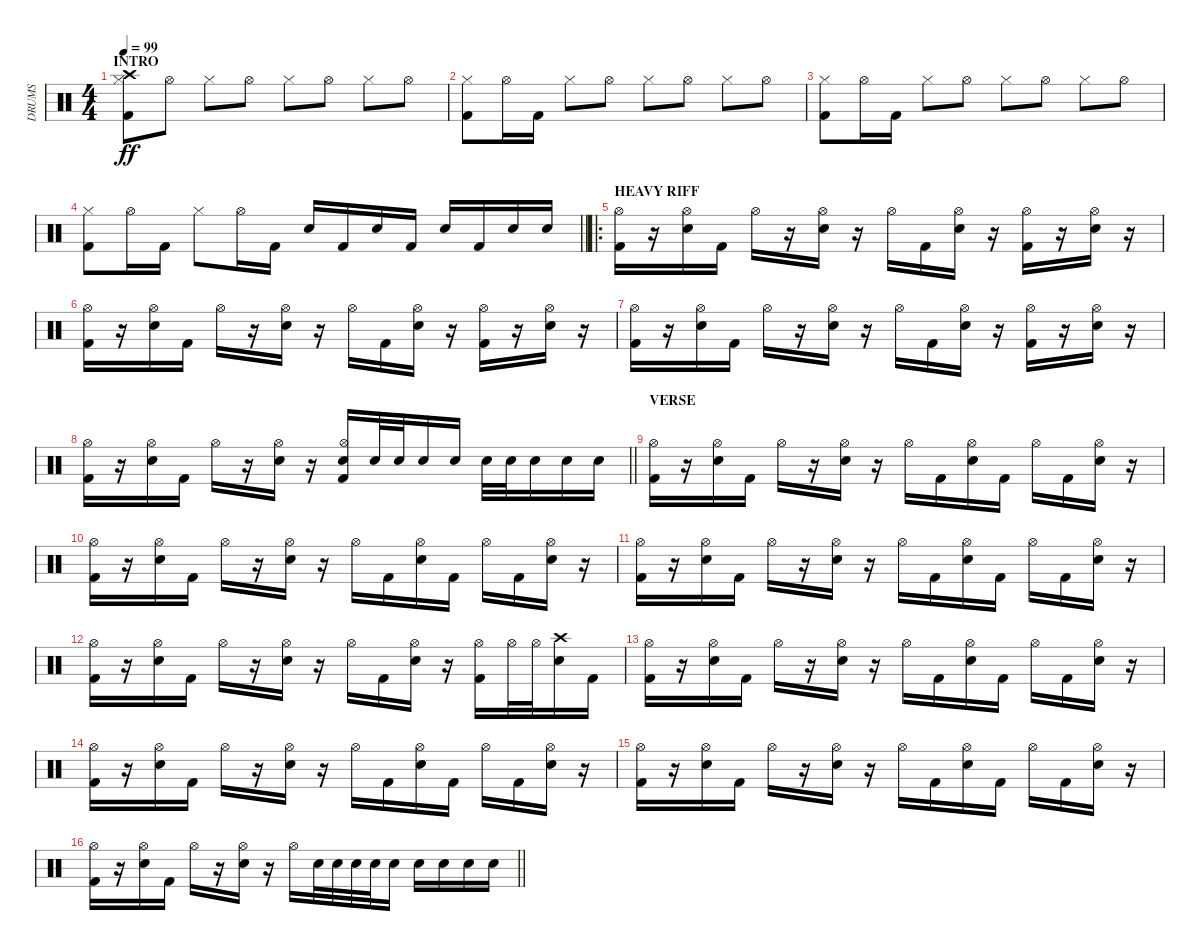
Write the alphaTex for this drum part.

\track ("DRUMS" "DRUMS") {instrument percussion}
\staff {score}
\articulation defaults
\ts (4 4)
\section ("" "INTRO")
\tempo 99
\clef neutral
\ks c
("Crash high (hit)" "Hi-Hat (closed)" "Kick (hit) 2").8{dy ff} "Hi-Hat (open)".8 "Hi-Hat (closed)".8 "Hi-Hat (open)".8 "Hi-Hat (closed)".8 "Hi-Hat (open)".8 "Hi-Hat (closed)".8 "Hi-Hat (open)".8 |
("Hi-Hat (closed)" "Kick (hit) 2").8 "Hi-Hat (open)".16 "Kick (hit) 2".16 "Hi-Hat (closed)".8 "Hi-Hat (open)".8 "Hi-Hat (closed)".8 "Hi-Hat (open)".8 "Hi-Hat (closed)".8 "Hi-Hat (open)".8 |
("Hi-Hat (closed)" "Kick (hit) 2").8 "Hi-Hat (open)".16 "Kick (hit) 2".16 "Hi-Hat (closed)".8 "Hi-Hat (open)".8 "Hi-Hat (closed)".8 "Hi-Hat (open)".8 "Hi-Hat (closed)".8 "Hi-Hat (open)".8 |
\barLineRight lightlight
("Hi-Hat (closed)" "Kick (hit) 2").8 "Hi-Hat (open)".16 "Kick (hit) 2".16 "Hi-Hat (closed)".8 "Hi-Hat (open)".16 "Kick (hit) 2".16 "Electric Snare (hit)".16 "Kick (hit) 2".16 "Electric Snare (hit)".16 "Kick (hit) 2".16 "Electric Snare (hit)".16 "Kick (hit) 2".16 "Electric Snare (hit)".16 "Electric Snare (hit)".16 |
\ro
\section ("" "HEAVY RIFF")
("Hi-Hat (open)" "Kick (hit) 2").16 r.16 ("Hi-Hat (open)" "Electric Snare (hit)").16 "Kick (hit) 2".16 "Hi-Hat (open)".16 r.16 ("Hi-Hat (open)" "Electric Snare (hit)").16 r.16 "Hi-Hat (open)".16 "Kick (hit) 2".16 ("Hi-Hat (open)" "Electric Snare (hit)").16 r.16 ("Hi-Hat (open)" "Kick (hit) 2").16 r.16 ("Hi-Hat (open)" "Electric Snare (hit)").16 r.16 |
("Hi-Hat (open)" "Kick (hit) 2").16 r.16 ("Hi-Hat (open)" "Electric Snare (hit)").16 "Kick (hit) 2".16 "Hi-Hat (open)".16 r.16 ("Hi-Hat (open)" "Electric Snare (hit)").16 r.16 "Hi-Hat (open)".16 "Kick (hit) 2".16 ("Hi-Hat (open)" "Electric Snare (hit)").16 r.16 ("Hi-Hat (open)" "Kick (hit) 2").16 r.16 ("Hi-Hat (open)" "Electric Snare (hit)").16 r.16 |
("Hi-Hat (open)" "Kick (hit) 2").16 r.16 ("Hi-Hat (open)" "Electric Snare (hit)").16 "Kick (hit) 2".16 "Hi-Hat (open)".16 r.16 ("Hi-Hat (open)" "Electric Snare (hit)").16 r.16 "Hi-Hat (open)".16 "Kick (hit) 2".16 ("Hi-Hat (open)" "Electric Snare (hit)").16 r.16 ("Hi-Hat (open)" "Kick (hit) 2").16 r.16 ("Hi-Hat (open)" "Electric Snare (hit)").16 r.16 |
\barLineRight lightlight
("Hi-Hat (open)" "Kick (hit) 2").16 r.16 ("Hi-Hat (open)" "Electric Snare (hit)").16 "Kick (hit) 2".16 "Hi-Hat (open)".16 r.16 ("Hi-Hat (open)" "Electric Snare (hit)").16 r.16 ("Hi-Hat (open)" "Electric Snare (hit)" "Kick (hit) 2").16 "Electric Snare (hit)".32 "Electric Snare (hit)".32 "Electric Snare (hit)".16 "Electric Snare (hit)".16 "Electric Snare (hit)".32 "Electric Snare (hit)".32 "Electric Snare (hit)".16 "Electric Snare (hit)".16 "Electric Snare (hit)".16 |
\section ("" "VERSE")
("Hi-Hat (open)" "Kick (hit) 2").16 r.16 ("Hi-Hat (open)" "Electric Snare (hit)").16 "Kick (hit) 2".16 "Hi-Hat (open)".16 r.16 ("Hi-Hat (open)" "Electric Snare (hit)").16 r.16 "Hi-Hat (open)".16 "Kick (hit) 2".16 ("Hi-Hat (open)" "Electric Snare (hit)").16 "Kick (hit) 2".16 "Hi-Hat (open)".16 "Kick (hit) 2".16 ("Hi-Hat (open)" "Electric Snare (hit)").16 r.16 |
("Hi-Hat (open)" "Kick (hit) 2").16 r.16 ("Hi-Hat (open)" "Electric Snare (hit)").16 "Kick (hit) 2".16 "Hi-Hat (open)".16 r.16 ("Hi-Hat (open)" "Electric Snare (hit)").16 r.16 "Hi-Hat (open)".16 "Kick (hit) 2".16 ("Hi-Hat (open)" "Electric Snare (hit)").16 "Kick (hit) 2".16 "Hi-Hat (open)".16 "Kick (hit) 2".16 ("Hi-Hat (open)" "Electric Snare (hit)").16 r.16 |
("Hi-Hat (open)" "Kick (hit) 2").16 r.16 ("Hi-Hat (open)" "Electric Snare (hit)").16 "Kick (hit) 2".16 "Hi-Hat (open)".16 r.16 ("Hi-Hat (open)" "Electric Snare (hit)").16 r.16 "Hi-Hat (open)".16 "Kick (hit) 2".16 ("Hi-Hat (open)" "Electric Snare (hit)").16 "Kick (hit) 2".16 "Hi-Hat (open)".16 "Kick (hit) 2".16 ("Hi-Hat (open)" "Electric Snare (hit)").16 r.16 |
("Hi-Hat (open)" "Kick (hit) 2").16 r.16 ("Hi-Hat (open)" "Electric Snare (hit)").16 "Kick (hit) 2".16 "Hi-Hat (open)".16 r.16 ("Hi-Hat (open)" "Electric Snare (hit)").16 r.16 "Hi-Hat (open)".16 "Kick (hit) 2".16 ("Hi-Hat (open)" "Electric Snare (hit)").16 r.16 ("Hi-Hat (open)" "Kick (hit) 2").16 "Hi-Hat (open)".32 "Hi-Hat (open)".32 ("Crash high (hit)" "Electric Snare (hit)").16 "Kick (hit) 2".16 |
("Hi-Hat (open)" "Kick (hit) 2").16 r.16 ("Hi-Hat (open)" "Electric Snare (hit)").16 "Kick (hit) 2".16 "Hi-Hat (open)".16 r.16 ("Hi-Hat (open)" "Electric Snare (hit)").16 r.16 "Hi-Hat (open)".16 "Kick (hit) 2".16 ("Hi-Hat (open)" "Electric Snare (hit)").16 "Kick (hit) 2".16 "Hi-Hat (open)".16 "Kick (hit) 2".16 ("Hi-Hat (open)" "Electric Snare (hit)").16 r.16 |
("Hi-Hat (open)" "Kick (hit) 2").16 r.16 ("Hi-Hat (open)" "Electric Snare (hit)").16 "Kick (hit) 2".16 "Hi-Hat (open)".16 r.16 ("Hi-Hat (open)" "Electric Snare (hit)").16 r.16 "Hi-Hat (open)".16 "Kick (hit) 2".16 ("Hi-Hat (open)" "Electric Snare (hit)").16 "Kick (hit) 2".16 "Hi-Hat (open)".16 "Kick (hit) 2".16 ("Hi-Hat (open)" "Electric Snare (hit)").16 r.16 |
("Hi-Hat (open)" "Kick (hit) 2").16 r.16 ("Hi-Hat (open)" "Electric Snare (hit)").16 "Kick (hit) 2".16 "Hi-Hat (open)".16 r.16 ("Hi-Hat (open)" "Electric Snare (hit)").16 r.16 "Hi-Hat (open)".16 "Kick (hit) 2".16 ("Hi-Hat (open)" "Electric Snare (hit)").16 "Kick (hit) 2".16 "Hi-Hat (open)".16 "Kick (hit) 2".16 ("Hi-Hat (open)" "Electric Snare (hit)").16 r.16 |
\barLineRight lightlight
("Hi-Hat (open)" "Kick (hit) 2").16 r.16 ("Hi-Hat (open)" "Electric Snare (hit)").16 "Kick (hit) 2".16 "Hi-Hat (open)".16 r.16 ("Hi-Hat (open)" "Electric Snare (hit)").16 r.16 "Hi-Hat (open)".16 "Electric Snare (hit)".32 "Electric Snare (hit)".32 "Electric Snare (hit)".32 "Electric Snare (hit)".32 "Electric Snare (hit)".16 "Electric Snare (hit)".16 "Electric Snare (hit)".16 "Electric Snare (hit)".16 "Electric Snare (hit)".16
